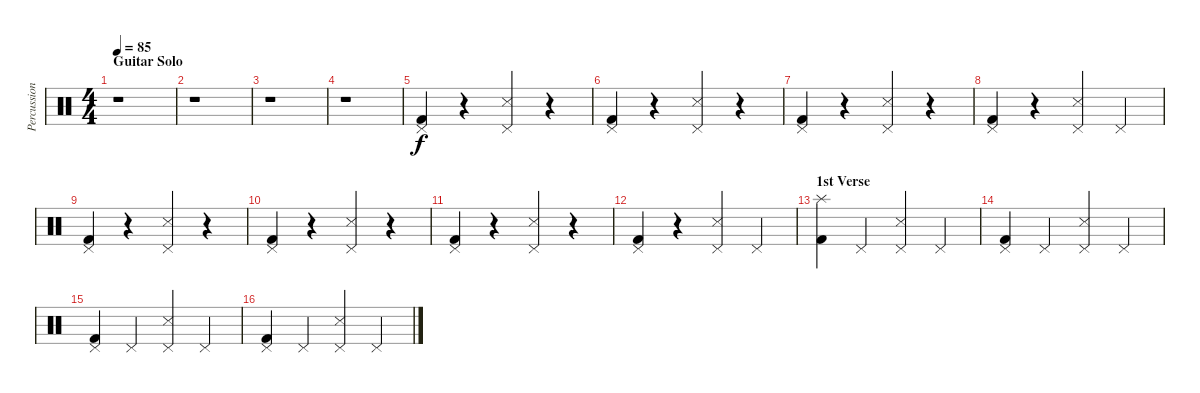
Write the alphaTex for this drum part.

\track ("Percussion" "Percussion") {instrument percussion}
\staff {score}
\articulation defaults
\ts (4 4)
\section ("" "Guitar Solo")
\tempo 85
\clef neutral
\ks c
r.1{dy f} |
r.1 |
r.1 |
r.1 |
("Pedal Hi-Hat (hit)" "Kick (hit) 2").4 r.4 ("Pedal Hi-Hat (hit)" "Snare (side stick) 3").4 r.4 |
("Pedal Hi-Hat (hit)" "Kick (hit) 2").4 r.4 ("Pedal Hi-Hat (hit)" "Snare (side stick) 3").4 r.4 |
("Pedal Hi-Hat (hit)" "Kick (hit) 2").4 r.4 ("Pedal Hi-Hat (hit)" "Snare (side stick) 3").4 r.4 |
("Pedal Hi-Hat (hit)" "Kick (hit) 2").4 r.4 ("Pedal Hi-Hat (hit)" "Snare (side stick) 3").4 "Pedal Hi-Hat (hit)".4 |
("Pedal Hi-Hat (hit)" "Kick (hit) 2").4 r.4 ("Pedal Hi-Hat (hit)" "Snare (side stick) 3").4 r.4 |
("Pedal Hi-Hat (hit)" "Kick (hit) 2").4 r.4 ("Pedal Hi-Hat (hit)" "Snare (side stick) 3").4 r.4 |
("Pedal Hi-Hat (hit)" "Kick (hit) 2").4 r.4 ("Pedal Hi-Hat (hit)" "Snare (side stick) 3").4 r.4 |
("Pedal Hi-Hat (hit)" "Kick (hit) 2").4 r.4 ("Pedal Hi-Hat (hit)" "Snare (side stick) 3").4 "Pedal Hi-Hat (hit)".4 |
\section ("" "1st Verse")
("Splash (hit)" "Kick (hit) 2").4 "Pedal Hi-Hat (hit)".4 ("Pedal Hi-Hat (hit)" "Snare (side stick) 3").4 "Pedal Hi-Hat (hit)".4 |
("Pedal Hi-Hat (hit)" "Kick (hit) 2").4 "Pedal Hi-Hat (hit)".4 ("Pedal Hi-Hat (hit)" "Snare (side stick) 3").4 "Pedal Hi-Hat (hit)".4 |
("Pedal Hi-Hat (hit)" "Kick (hit) 2").4 "Pedal Hi-Hat (hit)".4 ("Pedal Hi-Hat (hit)" "Snare (side stick) 3").4 "Pedal Hi-Hat (hit)".4 |
("Pedal Hi-Hat (hit)" "Kick (hit) 2").4 "Pedal Hi-Hat (hit)".4 ("Pedal Hi-Hat (hit)" "Snare (side stick) 3").4 "Pedal Hi-Hat (hit)".4
